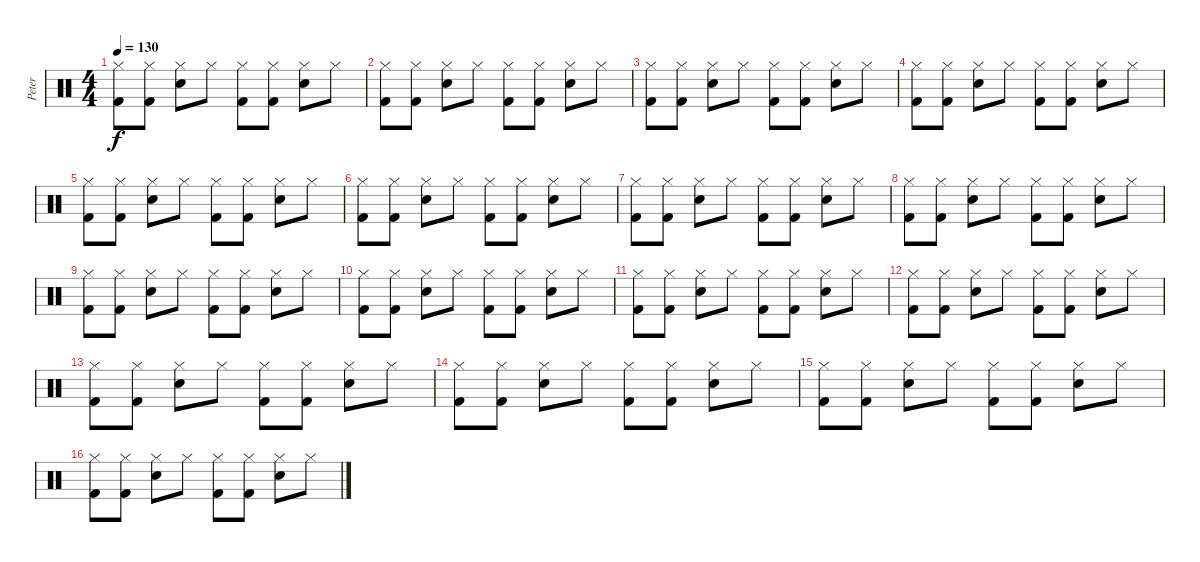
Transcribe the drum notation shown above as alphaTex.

\track ("Peter" "Peter") {instrument percussion}
\staff {score}
\articulation defaults
\ts (4 4)
\tempo 130
\clef neutral
\ks c
("Hi-Hat (closed)" "Kick (hit) 2").8{dy f} ("Hi-Hat (closed)" "Kick (hit) 2").8 ("Hi-Hat (closed)" "Electric Snare (hit)").8 "Hi-Hat (closed)".8 ("Hi-Hat (closed)" "Kick (hit) 2").8 ("Hi-Hat (closed)" "Kick (hit) 2").8 ("Hi-Hat (closed)" "Electric Snare (hit)").8 "Hi-Hat (closed)".8 |
("Hi-Hat (closed)" "Kick (hit) 2").8 ("Hi-Hat (closed)" "Kick (hit) 2").8 ("Hi-Hat (closed)" "Electric Snare (hit)").8 "Hi-Hat (closed)".8 ("Hi-Hat (closed)" "Kick (hit) 2").8 ("Hi-Hat (closed)" "Kick (hit) 2").8 ("Hi-Hat (closed)" "Electric Snare (hit)").8 "Hi-Hat (closed)".8 |
("Hi-Hat (closed)" "Kick (hit) 2").8 ("Hi-Hat (closed)" "Kick (hit) 2").8 ("Hi-Hat (closed)" "Electric Snare (hit)").8 "Hi-Hat (closed)".8 ("Hi-Hat (closed)" "Kick (hit) 2").8 ("Hi-Hat (closed)" "Kick (hit) 2").8 ("Hi-Hat (closed)" "Electric Snare (hit)").8 "Hi-Hat (closed)".8 |
("Hi-Hat (closed)" "Kick (hit) 2").8 ("Hi-Hat (closed)" "Kick (hit) 2").8 ("Hi-Hat (closed)" "Electric Snare (hit)").8 "Hi-Hat (closed)".8 ("Hi-Hat (closed)" "Kick (hit) 2").8 ("Hi-Hat (closed)" "Kick (hit) 2").8 ("Hi-Hat (closed)" "Electric Snare (hit)").8 "Hi-Hat (closed)".8 |
("Hi-Hat (closed)" "Kick (hit) 2").8 ("Hi-Hat (closed)" "Kick (hit) 2").8 ("Hi-Hat (closed)" "Electric Snare (hit)").8 "Hi-Hat (closed)".8 ("Hi-Hat (closed)" "Kick (hit) 2").8 ("Hi-Hat (closed)" "Kick (hit) 2").8 ("Hi-Hat (closed)" "Electric Snare (hit)").8 "Hi-Hat (closed)".8 |
("Hi-Hat (closed)" "Kick (hit) 2").8 ("Hi-Hat (closed)" "Kick (hit) 2").8 ("Hi-Hat (closed)" "Electric Snare (hit)").8 "Hi-Hat (closed)".8 ("Hi-Hat (closed)" "Kick (hit) 2").8 ("Hi-Hat (closed)" "Kick (hit) 2").8 ("Hi-Hat (closed)" "Electric Snare (hit)").8 "Hi-Hat (closed)".8 |
("Hi-Hat (closed)" "Kick (hit) 2").8 ("Hi-Hat (closed)" "Kick (hit) 2").8 ("Hi-Hat (closed)" "Electric Snare (hit)").8 "Hi-Hat (closed)".8 ("Hi-Hat (closed)" "Kick (hit) 2").8 ("Hi-Hat (closed)" "Kick (hit) 2").8 ("Hi-Hat (closed)" "Electric Snare (hit)").8 "Hi-Hat (closed)".8 |
("Hi-Hat (closed)" "Kick (hit) 2").8 ("Hi-Hat (closed)" "Kick (hit) 2").8 ("Hi-Hat (closed)" "Electric Snare (hit)").8 "Hi-Hat (closed)".8 ("Hi-Hat (closed)" "Kick (hit) 2").8 ("Hi-Hat (closed)" "Kick (hit) 2").8 ("Hi-Hat (closed)" "Electric Snare (hit)").8 "Hi-Hat (closed)".8 |
("Hi-Hat (closed)" "Kick (hit) 2").8 ("Hi-Hat (closed)" "Kick (hit) 2").8 ("Hi-Hat (closed)" "Electric Snare (hit)").8 "Hi-Hat (closed)".8 ("Hi-Hat (closed)" "Kick (hit) 2").8 ("Hi-Hat (closed)" "Kick (hit) 2").8 ("Hi-Hat (closed)" "Electric Snare (hit)").8 "Hi-Hat (closed)".8 |
("Hi-Hat (closed)" "Kick (hit) 2").8 ("Hi-Hat (closed)" "Kick (hit) 2").8 ("Hi-Hat (closed)" "Electric Snare (hit)").8 "Hi-Hat (closed)".8 ("Hi-Hat (closed)" "Kick (hit) 2").8 ("Hi-Hat (closed)" "Kick (hit) 2").8 ("Hi-Hat (closed)" "Electric Snare (hit)").8 "Hi-Hat (closed)".8 |
("Hi-Hat (closed)" "Kick (hit) 2").8 ("Hi-Hat (closed)" "Kick (hit) 2").8 ("Hi-Hat (closed)" "Electric Snare (hit)").8 "Hi-Hat (closed)".8 ("Hi-Hat (closed)" "Kick (hit) 2").8 ("Hi-Hat (closed)" "Kick (hit) 2").8 ("Hi-Hat (closed)" "Electric Snare (hit)").8 "Hi-Hat (closed)".8 |
("Hi-Hat (closed)" "Kick (hit) 2").8 ("Hi-Hat (closed)" "Kick (hit) 2").8 ("Hi-Hat (closed)" "Electric Snare (hit)").8 "Hi-Hat (closed)".8 ("Hi-Hat (closed)" "Kick (hit) 2").8 ("Hi-Hat (closed)" "Kick (hit) 2").8 ("Hi-Hat (closed)" "Electric Snare (hit)").8 "Hi-Hat (closed)".8 |
("Hi-Hat (closed)" "Kick (hit) 2").8 ("Hi-Hat (closed)" "Kick (hit) 2").8 ("Hi-Hat (closed)" "Electric Snare (hit)").8 "Hi-Hat (closed)".8 ("Hi-Hat (closed)" "Kick (hit) 2").8 ("Hi-Hat (closed)" "Kick (hit) 2").8 ("Hi-Hat (closed)" "Electric Snare (hit)").8 "Hi-Hat (closed)".8 |
("Hi-Hat (closed)" "Kick (hit) 2").8 ("Hi-Hat (closed)" "Kick (hit) 2").8 ("Hi-Hat (closed)" "Electric Snare (hit)").8 "Hi-Hat (closed)".8 ("Hi-Hat (closed)" "Kick (hit) 2").8 ("Hi-Hat (closed)" "Kick (hit) 2").8 ("Hi-Hat (closed)" "Electric Snare (hit)").8 "Hi-Hat (closed)".8 |
("Hi-Hat (closed)" "Kick (hit) 2").8 ("Hi-Hat (closed)" "Kick (hit) 2").8 ("Hi-Hat (closed)" "Electric Snare (hit)").8 "Hi-Hat (closed)".8 ("Hi-Hat (closed)" "Kick (hit) 2").8 ("Hi-Hat (closed)" "Kick (hit) 2").8 ("Hi-Hat (closed)" "Electric Snare (hit)").8 "Hi-Hat (closed)".8 |
("Hi-Hat (closed)" "Kick (hit) 2").8 ("Hi-Hat (closed)" "Kick (hit) 2").8 ("Hi-Hat (closed)" "Electric Snare (hit)").8 "Hi-Hat (closed)".8 ("Hi-Hat (closed)" "Kick (hit) 2").8 ("Hi-Hat (closed)" "Kick (hit) 2").8 ("Hi-Hat (closed)" "Electric Snare (hit)").8 "Hi-Hat (closed)".8
